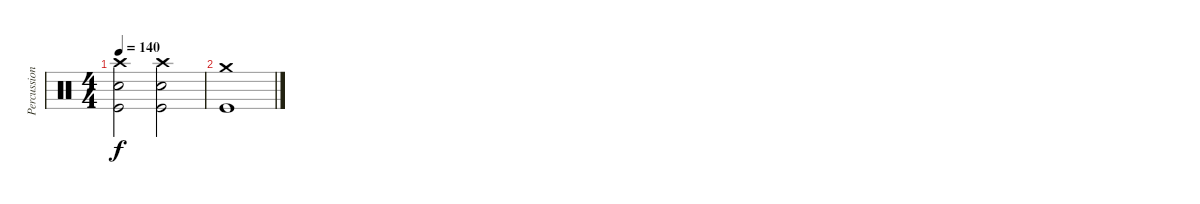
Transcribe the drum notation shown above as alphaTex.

\track ("Percussion" "Percussion") {instrument percussion}
\staff {score}
\articulation defaults
\ts (4 4)
\tempo 140
\clef neutral
\ks c
("Crash high (hit)" "Electric Snare (hit)" "Kick (hit)").2{dy f} ("Crash high (hit)" "Electric Snare (hit)" "Kick (hit)").2 |
("Crash medium (hit)" "Kick (hit)").1
